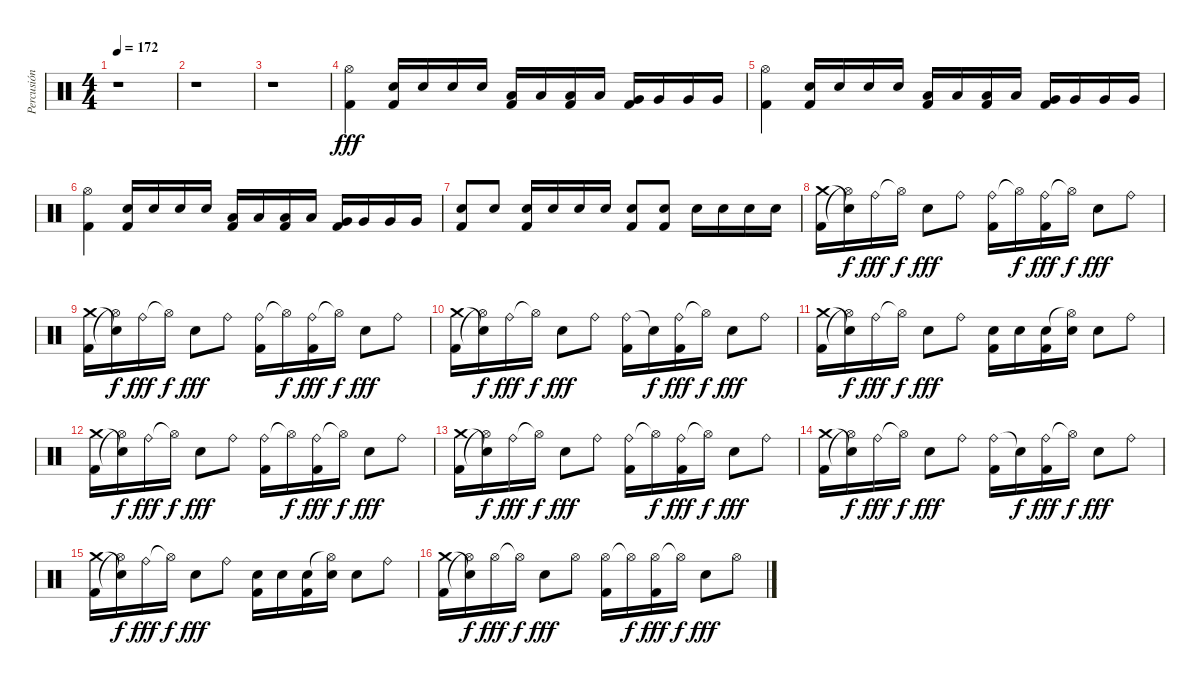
\track ("Percusión" "Percusión") {instrument percussion}
\staff {score}
\articulation defaults
\ts (4 4)
\tempo 172
\clef neutral
\ks c
r.1{dy fff} |
r.1 |
r.1 |
("Hi-Hat (open)" "Kick (hit) 2").4 ("Electric Snare (hit)" "Kick (hit) 2").16 "Electric Snare (hit)".16 "Electric Snare (hit)".16 "Electric Snare (hit)".16 ("Low Tom (hit)" "Kick (hit) 2").16 "Low Tom (hit)".16 ("Low Tom (hit)" "Kick (hit) 2").16 "Low Tom (hit)".16 ("Very Low Tom (hit)" "Kick (hit) 2").16 "Very Low Tom (hit)".16 "Very Low Tom (hit)".16 "Very Low Tom (hit)".16 |
("Hi-Hat (open)" "Kick (hit) 2").4 ("Electric Snare (hit)" "Kick (hit) 2").16 "Electric Snare (hit)".16 "Electric Snare (hit)".16 "Electric Snare (hit)".16 ("Low Tom (hit)" "Kick (hit) 2").16 "Low Tom (hit)".16 ("Low Tom (hit)" "Kick (hit) 2").16 "Low Tom (hit)".16 ("Very Low Tom (hit)" "Kick (hit) 2").16 "Very Low Tom (hit)".16 "Very Low Tom (hit)".16 "Very Low Tom (hit)".16 |
("Hi-Hat (open)" "Kick (hit) 2").4 ("Electric Snare (hit)" "Kick (hit) 2").16 "Electric Snare (hit)".16 "Electric Snare (hit)".16 "Electric Snare (hit)".16 ("Low Tom (hit)" "Kick (hit) 2").16 "Low Tom (hit)".16 ("Low Tom (hit)" "Kick (hit) 2").16 "Low Tom (hit)".16 ("Very Low Tom (hit)" "Kick (hit) 2").16 "Very Low Tom (hit)".16 "Very Low Tom (hit)".16 "Very Low Tom (hit)".16 |
("Electric Snare (hit)" "Kick (hit) 2").8 "Electric Snare (hit)".8 ("Electric Snare (hit)" "Kick (hit) 2").16 "Electric Snare (hit)".16 "Electric Snare (hit)".16 "Electric Snare (hit)".16 ("Electric Snare (hit)" "Kick (hit) 2").8 ("Electric Snare (hit)" "Kick (hit) 2").8 "Electric Snare (hit)".16 "Electric Snare (hit)".16 "Electric Snare (hit)".16 "Electric Snare (hit)".16 |
("Crash medium (hit)" "Kick (hit) 2").16 ("Snare (hit)"{t} "Hi-Hat (open)"{t}).16{dy f} "Ride (bell)".16{dy fff} "Hi-Hat (open)"{t}.16{dy f} "Electric Snare (hit)".8{dy fff} "Ride (bell)".8 ("Ride (bell)" "Kick (hit) 2").16 "Hi-Hat (open)"{t}.16{dy f} ("Ride (bell)" "Kick (hit) 2").16{dy fff} "Hi-Hat (open)"{t}.16{dy f} "Electric Snare (hit)".8{dy fff} "Ride (bell)".8 |
("Crash medium (hit)" "Kick (hit) 2").16 ("Snare (hit)"{t} "Hi-Hat (open)"{t}).16{dy f} "Ride (bell)".16{dy fff} "Hi-Hat (open)"{t}.16{dy f} "Electric Snare (hit)".8{dy fff} "Ride (bell)".8 ("Ride (bell)" "Kick (hit) 2").16 "Hi-Hat (open)"{t}.16{dy f} ("Ride (bell)" "Kick (hit) 2").16{dy fff} "Hi-Hat (open)"{t}.16{dy f} "Electric Snare (hit)".8{dy fff} "Ride (bell)".8 |
("Crash medium (hit)" "Kick (hit) 2").16 ("Snare (hit)"{t} "Hi-Hat (open)"{t}).16{dy f} "Ride (bell)".16{dy fff} "Hi-Hat (open)"{t}.16{dy f} "Electric Snare (hit)".8{dy fff} "Ride (bell)".8 ("Ride (bell)" "Kick (hit) 2").16 "Snare (hit)"{t}.16{dy f} ("Ride (bell)" "Kick (hit) 2").16{dy fff} "Hi-Hat (open)"{t}.16{dy f} "Electric Snare (hit)".8{dy fff} "Ride (bell)".8 |
("Crash medium (hit)" "Kick (hit) 2").16 ("Snare (hit)"{t} "Hi-Hat (open)"{t}).16{dy f} "Ride (bell)".16{dy fff} "Hi-Hat (open)"{t}.16{dy f} "Electric Snare (hit)".8{dy fff} "Ride (bell)".8 ("Electric Snare (hit)" "Kick (hit) 2").16 "Electric Snare (hit)".16 ("Electric Snare (hit)" "Kick (hit) 2").16 ("Hi-Hat (open)"{t} "Electric Snare (hit)").16 "Electric Snare (hit)".8 "Ride (bell)".8 |
("Crash medium (hit)" "Kick (hit) 2").16 ("Snare (hit)"{t} "Hi-Hat (open)"{t}).16{dy f} "Ride (bell)".16{dy fff} "Hi-Hat (open)"{t}.16{dy f} "Electric Snare (hit)".8{dy fff} "Ride (bell)".8 ("Ride (bell)" "Kick (hit) 2").16 "Hi-Hat (open)"{t}.16{dy f} ("Ride (bell)" "Kick (hit) 2").16{dy fff} "Hi-Hat (open)"{t}.16{dy f} "Electric Snare (hit)".8{dy fff} "Ride (bell)".8 |
("Crash medium (hit)" "Kick (hit) 2").16 ("Snare (hit)"{t} "Hi-Hat (open)"{t}).16{dy f} "Ride (bell)".16{dy fff} "Hi-Hat (open)"{t}.16{dy f} "Electric Snare (hit)".8{dy fff} "Ride (bell)".8 ("Ride (bell)" "Kick (hit) 2").16 "Hi-Hat (open)"{t}.16{dy f} ("Ride (bell)" "Kick (hit) 2").16{dy fff} "Hi-Hat (open)"{t}.16{dy f} "Electric Snare (hit)".8{dy fff} "Ride (bell)".8 |
("Crash medium (hit)" "Kick (hit) 2").16 ("Snare (hit)"{t} "Hi-Hat (open)"{t}).16{dy f} "Ride (bell)".16{dy fff} "Hi-Hat (open)"{t}.16{dy f} "Electric Snare (hit)".8{dy fff} "Ride (bell)".8 ("Ride (bell)" "Kick (hit) 2").16 "Snare (hit)"{t}.16{dy f} ("Ride (bell)" "Kick (hit) 2").16{dy fff} "Hi-Hat (open)"{t}.16{dy f} "Electric Snare (hit)".8{dy fff} "Ride (bell)".8 |
("Crash medium (hit)" "Kick (hit) 2").16 ("Snare (hit)"{t} "Hi-Hat (open)"{t}).16{dy f} "Ride (bell)".16{dy fff} "Hi-Hat (open)"{t}.16{dy f} "Electric Snare (hit)".8{dy fff} "Ride (bell)".8 ("Electric Snare (hit)" "Kick (hit) 2").16 "Electric Snare (hit)".16 ("Electric Snare (hit)" "Kick (hit) 2").16 ("Hi-Hat (open)"{t} "Electric Snare (hit)").16 "Electric Snare (hit)".8 "Ride (bell)".8 |
("Crash medium (hit)" "Kick (hit) 2").16 ("Snare (hit)"{t} "Hi-Hat (open)"{t}).16{dy f} "Hi-Hat (open)".16{dy fff} "Hi-Hat (open)"{t}.16{dy f} "Electric Snare (hit)".8{dy fff} "Hi-Hat (open)".8 ("Hi-Hat (open)" "Kick (hit) 2").16 "Hi-Hat (open)"{t}.16{dy f} ("Hi-Hat (open)" "Kick (hit) 2").16{dy fff} "Hi-Hat (open)"{t}.16{dy f} "Electric Snare (hit)".8{dy fff} "Hi-Hat (open)".8
